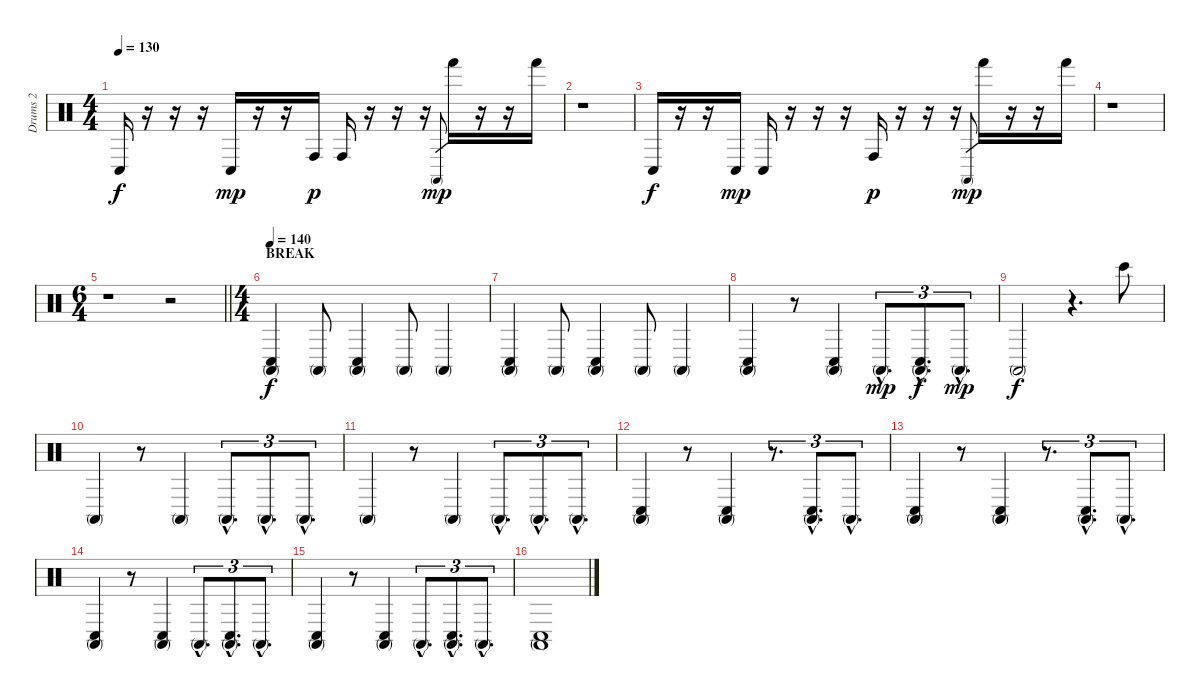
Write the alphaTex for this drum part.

\track ("Drums 2" "Drums 2") {instrument percussion}
\staff {score}
\articulation defaults
\ts (4 4)
\tempo 130
\clef neutral
\ks c "Conga low (hit)".16{dy f}
r.16 r.16 r.16 "Conga low (hit)".16{dy mp} r.16 r.16 "Conga high (hit)".16{dy p} "Conga high (hit)".16 r.16 r.16 r.16 "Conga high (mute)".8{gr dy mp} "Hand (hit)".16 r.16 r.16 "Hand (hit)".16 |
r.1 |
"Conga low (hit)".16{dy f} r.16 r.16 "Conga low (hit)".16{dy mp} "Conga low (hit)".16 r.16 r.16 r.16 "Conga high (hit)".16{dy p} r.16 r.16 r.16 "Conga high (mute)".8{gr dy mp} "Hand (hit)".16 r.16 r.16 "Hand (hit)".16 |
r.1 |
\ts (6 4)
\barLineRight lightlight
r.1 r.2 |
\ts (4 4)
\section ("" "BREAK")
\tempo 140
("Conga low (hit)" "Conga high (mute)").4{dy f} "Conga high (mute)".8 ("Conga low (hit)" "Conga high (mute)").4 "Conga high (mute)".8 "Conga high (mute)".4 |
("Conga low (hit)" "Conga high (mute)").4 "Conga high (mute)".8 ("Conga low (hit)" "Conga high (mute)").4 "Conga high (mute)".8 "Conga high (mute)".4 |
("Conga low (hit)" "Conga high (mute)").4 r.8 ("Conga low (hit)" "Conga high (mute)").4 "Conga high (mute)"{hac}.8{d tu (3 2) dy mp} ("Conga low (hit)"{hac} "Conga high (mute)"{hac}).8{d tu (3 2) dy f} "Conga high (mute)"{hac}.8{d tu (3 2) dy mp} |
"Conga high (mute)".2{dy f} r.4{d} "Bongo High (hit)".8 |
"Conga high (mute)".4 r.8 "Conga high (mute)".4 "Conga high (mute)"{hac}.8{d tu (3 2)} "Conga high (mute)"{hac}.8{d tu (3 2)} "Conga high (mute)"{hac}.8{d tu (3 2)} |
"Conga high (mute)".4 r.8 "Conga high (mute)".4 "Conga high (mute)"{hac}.8{d tu (3 2)} "Conga high (mute)"{hac}.8{d tu (3 2)} "Conga high (mute)"{hac}.8{d tu (3 2)} |
("Conga low (hit)" "Conga high (mute)").4 r.8 ("Conga low (hit)" "Conga high (mute)").4 r.8{d tu (3 2)} ("Conga low (hit)"{hac} "Conga high (mute)"{hac}).8{d tu (3 2)} "Conga high (mute)"{hac}.8{d tu (3 2)} |
("Conga low (hit)" "Conga high (mute)").4 r.8 ("Conga low (hit)" "Conga high (mute)").4 r.8{d tu (3 2)} ("Conga low (hit)"{hac} "Conga high (mute)"{hac}).8{d tu (3 2)} "Conga high (mute)"{hac}.8{d tu (3 2)} |
("Conga low (hit)" "Conga high (mute)").4 r.8 ("Conga low (hit)" "Conga high (mute)").4 "Conga high (mute)"{hac}.8{d tu (3 2)} ("Conga low (hit)"{hac} "Conga high (mute)"{hac}).8{d tu (3 2)} "Conga high (mute)"{hac}.8{d tu (3 2)} |
("Conga low (hit)" "Conga high (mute)").4 r.8 ("Conga low (hit)" "Conga high (mute)").4 "Conga high (mute)"{hac}.8{d tu (3 2)} ("Conga low (hit)"{hac} "Conga high (mute)"{hac}).8{d tu (3 2)} "Conga high (mute)"{hac}.8{d tu (3 2)} |
("Conga high (mute)" "Conga low (hit)").1
